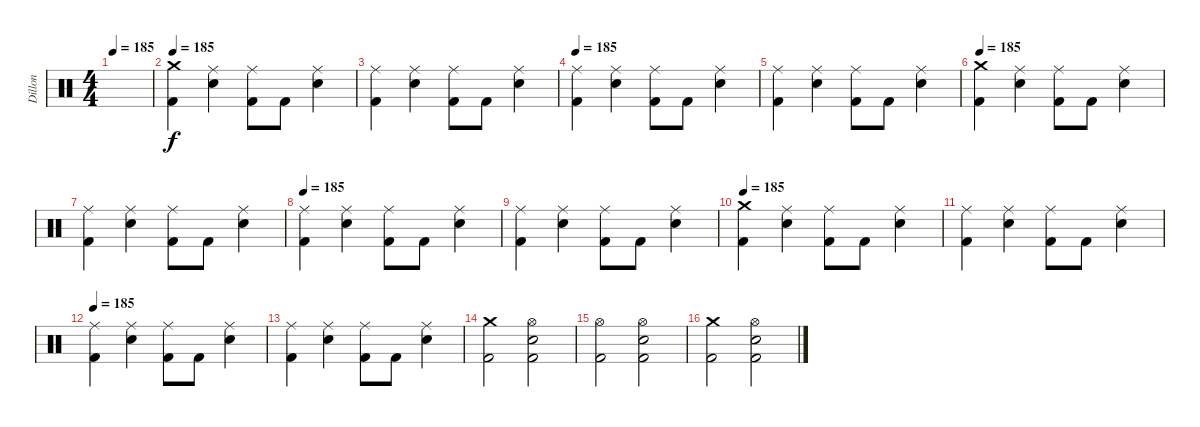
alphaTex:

\track ("Dillon" "Dillon") {instrument percussion}
\staff {score}
\articulation defaults
\ts (4 4)
\tempo 185
\clef neutral
\ks c
|
\tempo 185
("Crash medium (hit)" "Kick (hit) 2").4 ("Ride (middle)" "Electric Snare (hit)").4 ("Ride (middle)" "Kick (hit) 2").8 "Kick (hit) 2".8 ("Ride (middle)" "Electric Snare (hit)").4 |
("Ride (middle)" "Kick (hit) 2").4 ("Ride (middle)" "Electric Snare (hit)").4 ("Ride (middle)" "Kick (hit) 2").8 "Kick (hit) 2".8 ("Ride (middle)" "Electric Snare (hit)").4 |
\tempo 185
("Ride (middle)" "Kick (hit) 2").4 ("Ride (middle)" "Electric Snare (hit)").4 ("Ride (middle)" "Kick (hit) 2").8 "Kick (hit) 2".8 ("Ride (middle)" "Electric Snare (hit)").4 |
("Ride (middle)" "Kick (hit) 2").4 ("Ride (middle)" "Electric Snare (hit)").4 ("Ride (middle)" "Kick (hit) 2").8 "Kick (hit) 2".8 ("Ride (middle)" "Electric Snare (hit)").4 |
\tempo 185
("Crash medium (hit)" "Kick (hit) 2").4 ("Ride (middle)" "Electric Snare (hit)").4 ("Ride (middle)" "Kick (hit) 2").8 "Kick (hit) 2".8 ("Ride (middle)" "Electric Snare (hit)").4 |
("Ride (middle)" "Kick (hit) 2").4 ("Ride (middle)" "Electric Snare (hit)").4 ("Ride (middle)" "Kick (hit) 2").8 "Kick (hit) 2".8 ("Ride (middle)" "Electric Snare (hit)").4 |
\tempo 185
("Ride (middle)" "Kick (hit) 2").4 ("Ride (middle)" "Electric Snare (hit)").4 ("Ride (middle)" "Kick (hit) 2").8 "Kick (hit) 2".8 ("Ride (middle)" "Electric Snare (hit)").4 |
("Ride (middle)" "Kick (hit) 2").4 ("Ride (middle)" "Electric Snare (hit)").4 ("Ride (middle)" "Kick (hit) 2").8 "Kick (hit) 2".8 ("Ride (middle)" "Electric Snare (hit)").4 |
\tempo 185
("Crash medium (hit)" "Kick (hit) 2").4 ("Ride (middle)" "Electric Snare (hit)").4 ("Ride (middle)" "Kick (hit) 2").8 "Kick (hit) 2".8 ("Ride (middle)" "Electric Snare (hit)").4 |
("Ride (middle)" "Kick (hit) 2").4 ("Ride (middle)" "Electric Snare (hit)").4 ("Ride (middle)" "Kick (hit) 2").8 "Kick (hit) 2".8 ("Ride (middle)" "Electric Snare (hit)").4 |
\tempo 185
("Ride (middle)" "Kick (hit) 2").4 ("Ride (middle)" "Electric Snare (hit)").4 ("Ride (middle)" "Kick (hit) 2").8 "Kick (hit) 2".8 ("Ride (middle)" "Electric Snare (hit)").4 |
("Ride (middle)" "Kick (hit) 2").4 ("Ride (middle)" "Electric Snare (hit)").4 ("Ride (middle)" "Kick (hit) 2").8 "Kick (hit) 2".8 ("Ride (middle)" "Electric Snare (hit)").4 |
("Crash medium (hit)" "Kick (hit) 2").2 ("Hi-Hat (open)" "Electric Snare (hit)" "Kick (hit) 2").2 |
("Hi-Hat (open)" "Kick (hit) 2").2 ("Hi-Hat (open)" "Electric Snare (hit)" "Kick (hit) 2").2 |
("Crash medium (hit)" "Kick (hit) 2").2 ("Hi-Hat (open)" "Electric Snare (hit)" "Kick (hit) 2").2
